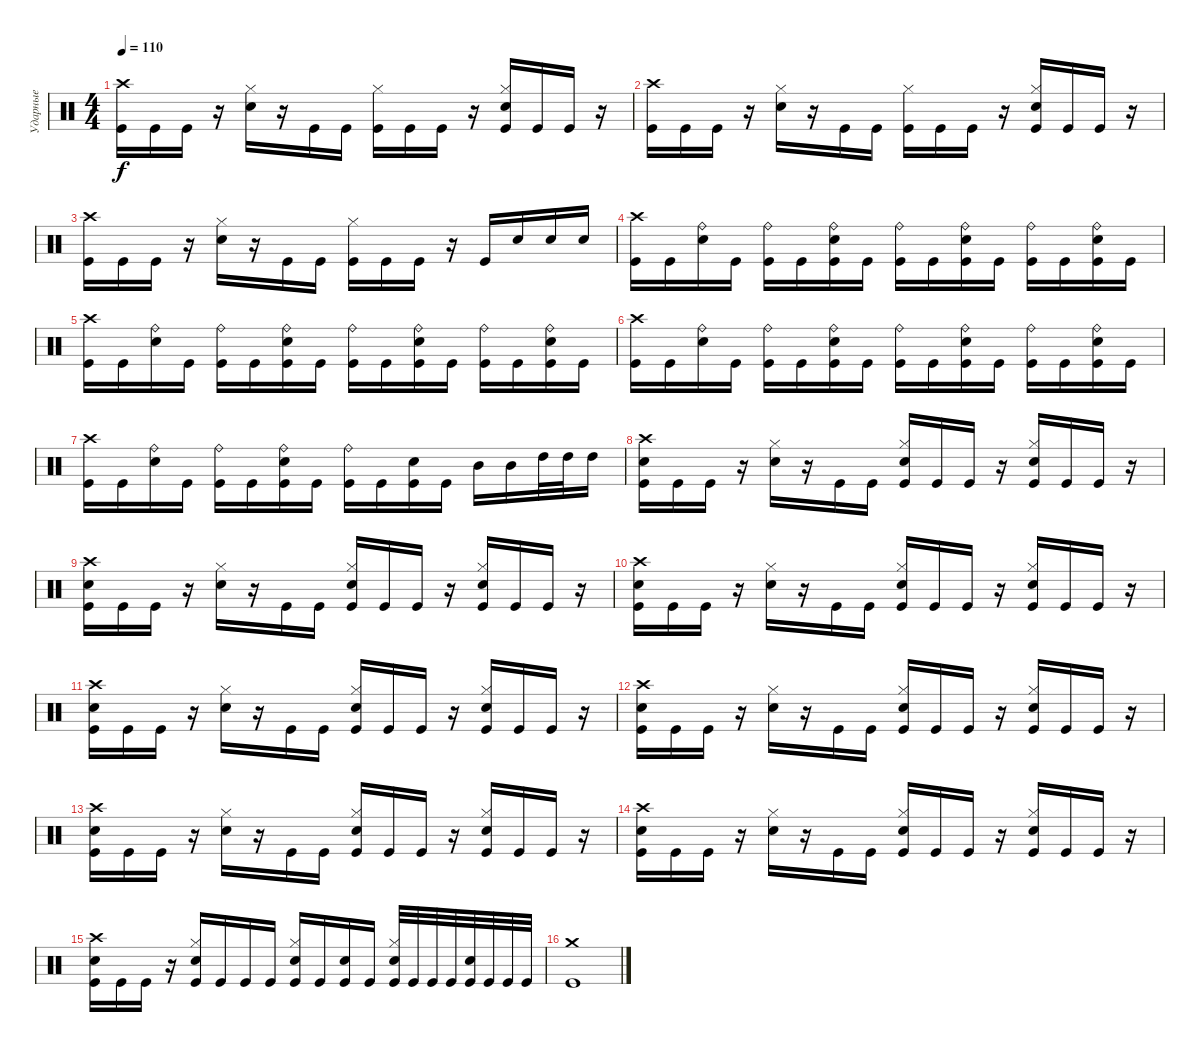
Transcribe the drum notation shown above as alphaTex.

\track ("Ударные" "Ударные") {instrument percussion}
\staff {score}
\articulation defaults
\ts (4 4)
\tempo 110
\clef neutral
\ks c
("Crash high (hit)" "Kick (hit)").16{dy f} "Kick (hit)".16 "Kick (hit)".16 r.16 ("Hi-Hat (closed)" "Electric Snare (hit)").16 r.16 "Kick (hit)".16 "Kick (hit)".16 ("Hi-Hat (closed)" "Kick (hit)").16 "Kick (hit)".16 "Kick (hit)".16 r.16 ("Hi-Hat (closed)" "Electric Snare (hit)" "Kick (hit)").16 "Kick (hit)".16 "Kick (hit)".16 r.16 |
("Crash high (hit)" "Kick (hit)").16 "Kick (hit)".16 "Kick (hit)".16 r.16 ("Hi-Hat (closed)" "Electric Snare (hit)").16 r.16 "Kick (hit)".16 "Kick (hit)".16 ("Hi-Hat (closed)" "Kick (hit)").16 "Kick (hit)".16 "Kick (hit)".16 r.16 ("Hi-Hat (closed)" "Electric Snare (hit)" "Kick (hit)").16 "Kick (hit)".16 "Kick (hit)".16 r.16 |
("Crash high (hit)" "Kick (hit)").16 "Kick (hit)".16 "Kick (hit)".16 r.16 ("Hi-Hat (closed)" "Electric Snare (hit)").16 r.16 "Kick (hit)".16 "Kick (hit)".16 ("Hi-Hat (closed)" "Kick (hit)").16 "Kick (hit)".16 "Kick (hit)".16 r.16 "Kick (hit)".16 "Electric Snare (hit)".16 "Electric Snare (hit)".16 "Electric Snare (hit)".16 |
("Crash high (hit)" "Kick (hit)").16 "Kick (hit)".16 ("Ride (bell)" "Electric Snare (hit)").16 "Kick (hit)".16 ("Ride (bell)" "Kick (hit)").16 "Kick (hit)".16 ("Ride (bell)" "Electric Snare (hit)" "Kick (hit)").16 "Kick (hit)".16 ("Ride (bell)" "Kick (hit)").16 "Kick (hit)".16 ("Ride (bell)" "Electric Snare (hit)" "Kick (hit)").16 "Kick (hit)".16 ("Ride (bell)" "Kick (hit)").16 "Kick (hit)".16 ("Ride (bell)" "Electric Snare (hit)" "Kick (hit)").16 "Kick (hit)".16 |
("Crash high (hit)" "Kick (hit)").16 "Kick (hit)".16 ("Ride (bell)" "Electric Snare (hit)").16 "Kick (hit)".16 ("Ride (bell)" "Kick (hit)").16 "Kick (hit)".16 ("Ride (bell)" "Electric Snare (hit)" "Kick (hit)").16 "Kick (hit)".16 ("Ride (bell)" "Kick (hit)").16 "Kick (hit)".16 ("Ride (bell)" "Electric Snare (hit)" "Kick (hit)").16 "Kick (hit)".16 ("Ride (bell)" "Kick (hit)").16 "Kick (hit)".16 ("Ride (bell)" "Electric Snare (hit)" "Kick (hit)").16 "Kick (hit)".16 |
("Crash high (hit)" "Kick (hit)").16 "Kick (hit)".16 ("Ride (bell)" "Electric Snare (hit)").16 "Kick (hit)".16 ("Ride (bell)" "Kick (hit)").16 "Kick (hit)".16 ("Ride (bell)" "Electric Snare (hit)" "Kick (hit)").16 "Kick (hit)".16 ("Ride (bell)" "Kick (hit)").16 "Kick (hit)".16 ("Ride (bell)" "Electric Snare (hit)" "Kick (hit)").16 "Kick (hit)".16 ("Ride (bell)" "Kick (hit)").16 "Kick (hit)".16 ("Ride (bell)" "Electric Snare (hit)" "Kick (hit)").16 "Kick (hit)".16 |
("Crash high (hit)" "Kick (hit)").16 "Kick (hit)".16 ("Ride (bell)" "Electric Snare (hit)").16 "Kick (hit)".16 ("Ride (bell)" "Kick (hit)").16 "Kick (hit)".16 ("Ride (bell)" "Electric Snare (hit)" "Kick (hit)").16 "Kick (hit)".16 ("Ride (bell)" "Kick (hit)").16 "Kick (hit)".16 ("Electric Snare (hit)" "Kick (hit)").16 "Kick (hit)".16 "Mid Tom (hit)".16 "Mid Tom (hit)".16 "High Tom (hit)".32 "High Tom (hit)".32 "High Tom (hit)".16 |
("Crash high (hit)" "Electric Snare (hit)" "Kick (hit)").16 "Kick (hit)".16 "Kick (hit)".16 r.16 ("Hi-Hat (closed)" "Electric Snare (hit)").16 r.16 "Kick (hit)".16 "Kick (hit)".16 ("Hi-Hat (closed)" "Electric Snare (hit)" "Kick (hit)").16 "Kick (hit)".16 "Kick (hit)".16 r.16 ("Hi-Hat (closed)" "Electric Snare (hit)" "Kick (hit)").16 "Kick (hit)".16 "Kick (hit)".16 r.16 |
("Crash high (hit)" "Electric Snare (hit)" "Kick (hit)").16 "Kick (hit)".16 "Kick (hit)".16 r.16 ("Hi-Hat (closed)" "Electric Snare (hit)").16 r.16 "Kick (hit)".16 "Kick (hit)".16 ("Hi-Hat (closed)" "Electric Snare (hit)" "Kick (hit)").16 "Kick (hit)".16 "Kick (hit)".16 r.16 ("Hi-Hat (closed)" "Electric Snare (hit)" "Kick (hit)").16 "Kick (hit)".16 "Kick (hit)".16 r.16 |
("Crash high (hit)" "Electric Snare (hit)" "Kick (hit)").16 "Kick (hit)".16 "Kick (hit)".16 r.16 ("Hi-Hat (closed)" "Electric Snare (hit)").16 r.16 "Kick (hit)".16 "Kick (hit)".16 ("Hi-Hat (closed)" "Electric Snare (hit)" "Kick (hit)").16 "Kick (hit)".16 "Kick (hit)".16 r.16 ("Hi-Hat (closed)" "Electric Snare (hit)" "Kick (hit)").16 "Kick (hit)".16 "Kick (hit)".16 r.16 |
("Crash high (hit)" "Electric Snare (hit)" "Kick (hit)").16 "Kick (hit)".16 "Kick (hit)".16 r.16 ("Hi-Hat (closed)" "Electric Snare (hit)").16 r.16 "Kick (hit)".16 "Kick (hit)".16 ("Hi-Hat (closed)" "Electric Snare (hit)" "Kick (hit)").16 "Kick (hit)".16 "Kick (hit)".16 r.16 ("Hi-Hat (closed)" "Electric Snare (hit)" "Kick (hit)").16 "Kick (hit)".16 "Kick (hit)".16 r.16 |
("Crash high (hit)" "Electric Snare (hit)" "Kick (hit)").16 "Kick (hit)".16 "Kick (hit)".16 r.16 ("Hi-Hat (closed)" "Electric Snare (hit)").16 r.16 "Kick (hit)".16 "Kick (hit)".16 ("Hi-Hat (closed)" "Electric Snare (hit)" "Kick (hit)").16 "Kick (hit)".16 "Kick (hit)".16 r.16 ("Hi-Hat (closed)" "Electric Snare (hit)" "Kick (hit)").16 "Kick (hit)".16 "Kick (hit)".16 r.16 |
("Crash high (hit)" "Electric Snare (hit)" "Kick (hit)").16 "Kick (hit)".16 "Kick (hit)".16 r.16 ("Hi-Hat (closed)" "Electric Snare (hit)").16 r.16 "Kick (hit)".16 "Kick (hit)".16 ("Hi-Hat (closed)" "Electric Snare (hit)" "Kick (hit)").16 "Kick (hit)".16 "Kick (hit)".16 r.16 ("Hi-Hat (closed)" "Electric Snare (hit)" "Kick (hit)").16 "Kick (hit)".16 "Kick (hit)".16 r.16 |
("Crash high (hit)" "Electric Snare (hit)" "Kick (hit)").16 "Kick (hit)".16 "Kick (hit)".16 r.16 ("Hi-Hat (closed)" "Electric Snare (hit)").16 r.16 "Kick (hit)".16 "Kick (hit)".16 ("Hi-Hat (closed)" "Electric Snare (hit)" "Kick (hit)").16 "Kick (hit)".16 "Kick (hit)".16 r.16 ("Hi-Hat (closed)" "Electric Snare (hit)" "Kick (hit)").16 "Kick (hit)".16 "Kick (hit)".16 r.16 |
("Crash high (hit)" "Electric Snare (hit)" "Kick (hit)").16 "Kick (hit)".16 "Kick (hit)".16 r.16 ("Hi-Hat (closed)" "Electric Snare (hit)" "Kick (hit)").16 "Kick (hit)".16 "Kick (hit)".16 "Kick (hit)".16 ("Hi-Hat (closed)" "Electric Snare (hit)" "Kick (hit)").16 "Kick (hit)".16 ("Electric Snare (hit)" "Kick (hit)").16 "Kick (hit)".16 ("Hi-Hat (closed)" "Electric Snare (hit)" "Kick (hit)").32 "Kick (hit)".32 "Kick (hit)".32 "Kick (hit)".32 ("Electric Snare (hit)" "Kick (hit)").32 "Kick (hit)".32 "Kick (hit)".32 "Kick (hit)".32 |
("Crash medium (hit)" "Kick (hit)").1
